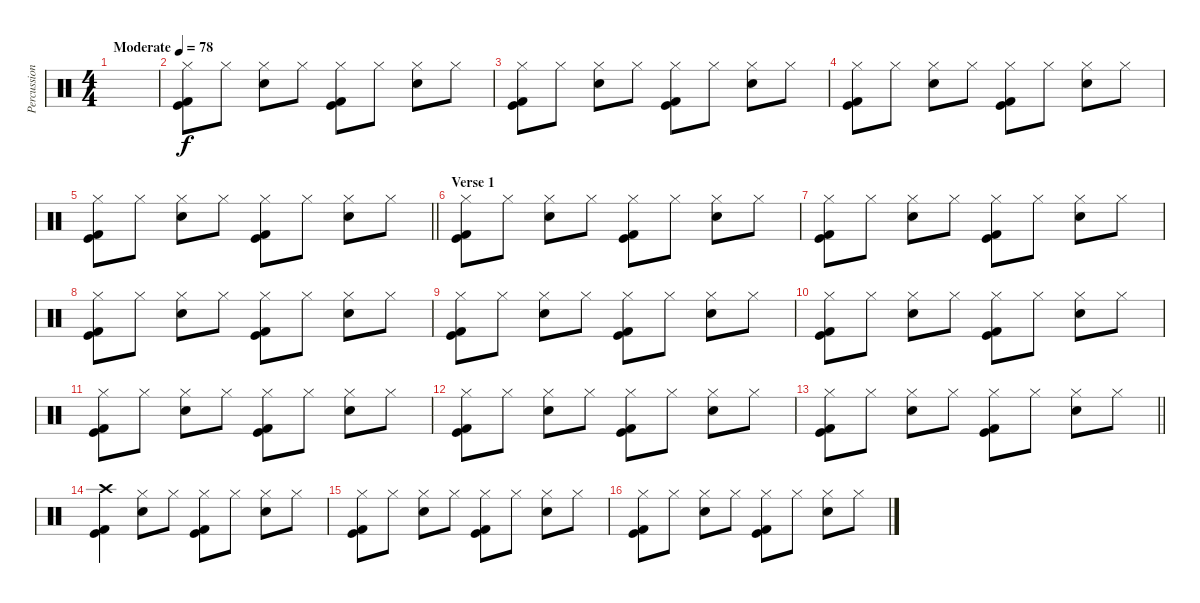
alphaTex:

\track ("Percussion" "Percussion") {instrument percussion}
\staff {score}
\articulation defaults
\ts (4 4)
\tempo (78 "Moderate")
\clef neutral
\ks c
|
("Hi-Hat (closed)" "Kick (hit)" "Kick (hit) 2").8 "Hi-Hat (closed)".8 ("Hi-Hat (closed)" "Electric Snare (hit)").8 "Hi-Hat (closed)".8 ("Hi-Hat (closed)" "Kick (hit)" "Kick (hit) 2").8 "Hi-Hat (closed)".8 ("Hi-Hat (closed)" "Electric Snare (hit)").8 "Hi-Hat (closed)".8 |
("Hi-Hat (closed)" "Kick (hit)" "Kick (hit) 2").8 "Hi-Hat (closed)".8 ("Hi-Hat (closed)" "Electric Snare (hit)").8 "Hi-Hat (closed)".8 ("Hi-Hat (closed)" "Kick (hit)" "Kick (hit) 2").8 "Hi-Hat (closed)".8 ("Hi-Hat (closed)" "Electric Snare (hit)").8 "Hi-Hat (closed)".8 |
("Hi-Hat (closed)" "Kick (hit)" "Kick (hit) 2").8 "Hi-Hat (closed)".8 ("Hi-Hat (closed)" "Electric Snare (hit)").8 "Hi-Hat (closed)".8 ("Hi-Hat (closed)" "Kick (hit)" "Kick (hit) 2").8 "Hi-Hat (closed)".8 ("Hi-Hat (closed)" "Electric Snare (hit)").8 "Hi-Hat (closed)".8 |
\barLineRight lightlight
("Hi-Hat (closed)" "Kick (hit)" "Kick (hit) 2").8 "Hi-Hat (closed)".8 ("Hi-Hat (closed)" "Electric Snare (hit)").8 "Hi-Hat (closed)".8 ("Hi-Hat (closed)" "Kick (hit)" "Kick (hit) 2").8 "Hi-Hat (closed)".8 ("Hi-Hat (closed)" "Electric Snare (hit)").8 "Hi-Hat (closed)".8 |
\section ("" "Verse 1")
("Hi-Hat (closed)" "Kick (hit)" "Kick (hit) 2").8 "Hi-Hat (closed)".8 ("Hi-Hat (closed)" "Electric Snare (hit)").8 "Hi-Hat (closed)".8 ("Hi-Hat (closed)" "Kick (hit)" "Kick (hit) 2").8 "Hi-Hat (closed)".8 ("Hi-Hat (closed)" "Electric Snare (hit)").8 "Hi-Hat (closed)".8 |
("Hi-Hat (closed)" "Kick (hit)" "Kick (hit) 2").8 "Hi-Hat (closed)".8 ("Hi-Hat (closed)" "Electric Snare (hit)").8 "Hi-Hat (closed)".8 ("Hi-Hat (closed)" "Kick (hit)" "Kick (hit) 2").8 "Hi-Hat (closed)".8 ("Hi-Hat (closed)" "Electric Snare (hit)").8 "Hi-Hat (closed)".8 |
("Hi-Hat (closed)" "Kick (hit)" "Kick (hit) 2").8 "Hi-Hat (closed)".8 ("Hi-Hat (closed)" "Electric Snare (hit)").8 "Hi-Hat (closed)".8 ("Hi-Hat (closed)" "Kick (hit)" "Kick (hit) 2").8 "Hi-Hat (closed)".8 ("Hi-Hat (closed)" "Electric Snare (hit)").8 "Hi-Hat (closed)".8 |
("Hi-Hat (closed)" "Kick (hit)" "Kick (hit) 2").8 "Hi-Hat (closed)".8 ("Hi-Hat (closed)" "Electric Snare (hit)").8 "Hi-Hat (closed)".8 ("Hi-Hat (closed)" "Kick (hit)" "Kick (hit) 2").8 "Hi-Hat (closed)".8 ("Hi-Hat (closed)" "Electric Snare (hit)").8 "Hi-Hat (closed)".8 |
("Hi-Hat (closed)" "Kick (hit)" "Kick (hit) 2").8 "Hi-Hat (closed)".8 ("Hi-Hat (closed)" "Electric Snare (hit)").8 "Hi-Hat (closed)".8 ("Hi-Hat (closed)" "Kick (hit)" "Kick (hit) 2").8 "Hi-Hat (closed)".8 ("Hi-Hat (closed)" "Electric Snare (hit)").8 "Hi-Hat (closed)".8 |
("Hi-Hat (closed)" "Kick (hit)" "Kick (hit) 2").8 "Hi-Hat (closed)".8 ("Hi-Hat (closed)" "Electric Snare (hit)").8 "Hi-Hat (closed)".8 ("Hi-Hat (closed)" "Kick (hit)" "Kick (hit) 2").8 "Hi-Hat (closed)".8 ("Hi-Hat (closed)" "Electric Snare (hit)").8 "Hi-Hat (closed)".8 |
("Hi-Hat (closed)" "Kick (hit)" "Kick (hit) 2").8 "Hi-Hat (closed)".8 ("Hi-Hat (closed)" "Electric Snare (hit)").8 "Hi-Hat (closed)".8 ("Hi-Hat (closed)" "Kick (hit)" "Kick (hit) 2").8 "Hi-Hat (closed)".8 ("Hi-Hat (closed)" "Electric Snare (hit)").8 "Hi-Hat (closed)".8 |
\barLineRight lightlight
("Hi-Hat (closed)" "Kick (hit)" "Kick (hit) 2").8 "Hi-Hat (closed)".8 ("Hi-Hat (closed)" "Electric Snare (hit)").8 "Hi-Hat (closed)".8 ("Hi-Hat (closed)" "Kick (hit)" "Kick (hit) 2").8 "Hi-Hat (closed)".8 ("Hi-Hat (closed)" "Electric Snare (hit)").8 "Hi-Hat (closed)".8 |
\section ("" "")
("Crash high (hit)" "Kick (hit)" "Kick (hit) 2").4 ("Hi-Hat (closed)" "Electric Snare (hit)").8 "Hi-Hat (closed)".8 ("Hi-Hat (closed)" "Kick (hit)" "Kick (hit) 2").8 "Hi-Hat (closed)".8 ("Hi-Hat (closed)" "Electric Snare (hit)").8 "Hi-Hat (closed)".8 |
("Hi-Hat (closed)" "Kick (hit)" "Kick (hit) 2").8 "Hi-Hat (closed)".8 ("Hi-Hat (closed)" "Electric Snare (hit)").8 "Hi-Hat (closed)".8 ("Hi-Hat (closed)" "Kick (hit)" "Kick (hit) 2").8 "Hi-Hat (closed)".8 ("Hi-Hat (closed)" "Electric Snare (hit)").8 "Hi-Hat (closed)".8 |
("Hi-Hat (closed)" "Kick (hit)" "Kick (hit) 2").8 "Hi-Hat (closed)".8 ("Hi-Hat (closed)" "Electric Snare (hit)").8 "Hi-Hat (closed)".8 ("Hi-Hat (closed)" "Kick (hit)" "Kick (hit) 2").8 "Hi-Hat (closed)".8 ("Hi-Hat (closed)" "Electric Snare (hit)").8 "Hi-Hat (closed)".8
